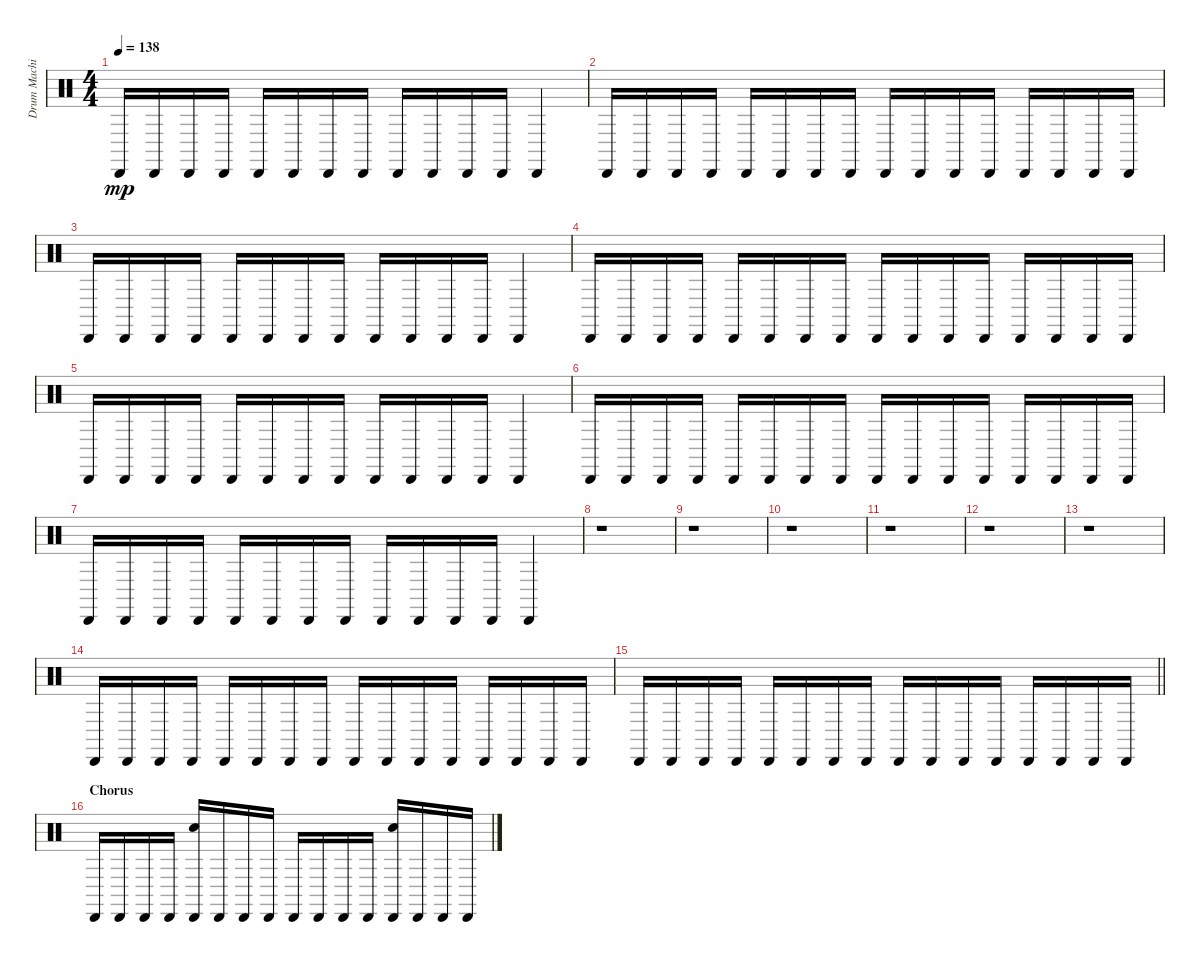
\track ("Drum Machine" "Drum Machi") {instrument percussion}
\staff {score}
\articulation defaults
\ts (4 4)
\tempo 138
\clef neutral
\ks c "Cabasa (hit)".16{dy mp} "Cabasa (hit)".16 "Cabasa (hit)".16 "Cabasa (hit)".16 "Cabasa (hit)".16 "Cabasa (hit)".16 "Cabasa (hit)".16 "Cabasa (hit)".16 "Cabasa (hit)".16 "Cabasa (hit)".16 "Cabasa (hit)".16 "Cabasa (hit)".16 "Cabasa (hit)".4
|
"Cabasa (hit)".16 "Cabasa (hit)".16 "Cabasa (hit)".16 "Cabasa (hit)".16 "Cabasa (hit)".16 "Cabasa (hit)".16 "Cabasa (hit)".16 "Cabasa (hit)".16 "Cabasa (hit)".16 "Cabasa (hit)".16 "Cabasa (hit)".16 "Cabasa (hit)".16 "Cabasa (hit)".16 "Cabasa (hit)".16 "Cabasa (hit)".16 "Cabasa (hit)".16 |
"Cabasa (hit)".16 "Cabasa (hit)".16 "Cabasa (hit)".16 "Cabasa (hit)".16 "Cabasa (hit)".16 "Cabasa (hit)".16 "Cabasa (hit)".16 "Cabasa (hit)".16 "Cabasa (hit)".16 "Cabasa (hit)".16 "Cabasa (hit)".16 "Cabasa (hit)".16 "Cabasa (hit)".4 |
"Cabasa (hit)".16 "Cabasa (hit)".16 "Cabasa (hit)".16 "Cabasa (hit)".16 "Cabasa (hit)".16 "Cabasa (hit)".16 "Cabasa (hit)".16 "Cabasa (hit)".16 "Cabasa (hit)".16 "Cabasa (hit)".16 "Cabasa (hit)".16 "Cabasa (hit)".16 "Cabasa (hit)".16 "Cabasa (hit)".16 "Cabasa (hit)".16 "Cabasa (hit)".16 |
"Cabasa (hit)".16 "Cabasa (hit)".16 "Cabasa (hit)".16 "Cabasa (hit)".16 "Cabasa (hit)".16 "Cabasa (hit)".16 "Cabasa (hit)".16 "Cabasa (hit)".16 "Cabasa (hit)".16 "Cabasa (hit)".16 "Cabasa (hit)".16 "Cabasa (hit)".16 "Cabasa (hit)".4 |
"Cabasa (hit)".16 "Cabasa (hit)".16 "Cabasa (hit)".16 "Cabasa (hit)".16 "Cabasa (hit)".16 "Cabasa (hit)".16 "Cabasa (hit)".16 "Cabasa (hit)".16 "Cabasa (hit)".16 "Cabasa (hit)".16 "Cabasa (hit)".16 "Cabasa (hit)".16 "Cabasa (hit)".16 "Cabasa (hit)".16 "Cabasa (hit)".16 "Cabasa (hit)".16 |
"Cabasa (hit)".16 "Cabasa (hit)".16 "Cabasa (hit)".16 "Cabasa (hit)".16 "Cabasa (hit)".16 "Cabasa (hit)".16 "Cabasa (hit)".16 "Cabasa (hit)".16 "Cabasa (hit)".16 "Cabasa (hit)".16 "Cabasa (hit)".16 "Cabasa (hit)".16 "Cabasa (hit)".4 |
r.1 |
r.1 |
r.1 |
r.1 |
r.1 |
r.1 |
"Cabasa (hit)".16 "Cabasa (hit)".16 "Cabasa (hit)".16 "Cabasa (hit)".16 "Cabasa (hit)".16 "Cabasa (hit)".16 "Cabasa (hit)".16 "Cabasa (hit)".16 "Cabasa (hit)".16 "Cabasa (hit)".16 "Cabasa (hit)".16 "Cabasa (hit)".16 "Cabasa (hit)".16 "Cabasa (hit)".16 "Cabasa (hit)".16 "Cabasa (hit)".16 |
\barLineRight lightlight "Cabasa (hit)".16 "Cabasa (hit)".16 "Cabasa (hit)".16 "Cabasa (hit)".16 "Cabasa (hit)".16 "Cabasa (hit)".16 "Cabasa (hit)".16 "Cabasa (hit)".16 "Cabasa (hit)".16 "Cabasa (hit)".16 "Cabasa (hit)".16 "Cabasa (hit)".16 "Cabasa (hit)".16 "Cabasa (hit)".16 "Cabasa (hit)".16 "Cabasa (hit)".16
|
\section ("" "Chorus")
"Cabasa (hit)".16 "Cabasa (hit)".16 "Cabasa (hit)".16 "Cabasa (hit)".16 ("Cabasa (hit)" "Hand Clap (hit)").16 "Cabasa (hit)".16 "Cabasa (hit)".16 "Cabasa (hit)".16 "Cabasa (hit)".16 "Cabasa (hit)".16 "Cabasa (hit)".16 "Cabasa (hit)".16 ("Cabasa (hit)" "Hand Clap (hit)").16 "Cabasa (hit)".16 "Cabasa (hit)".16 "Cabasa (hit)".16
